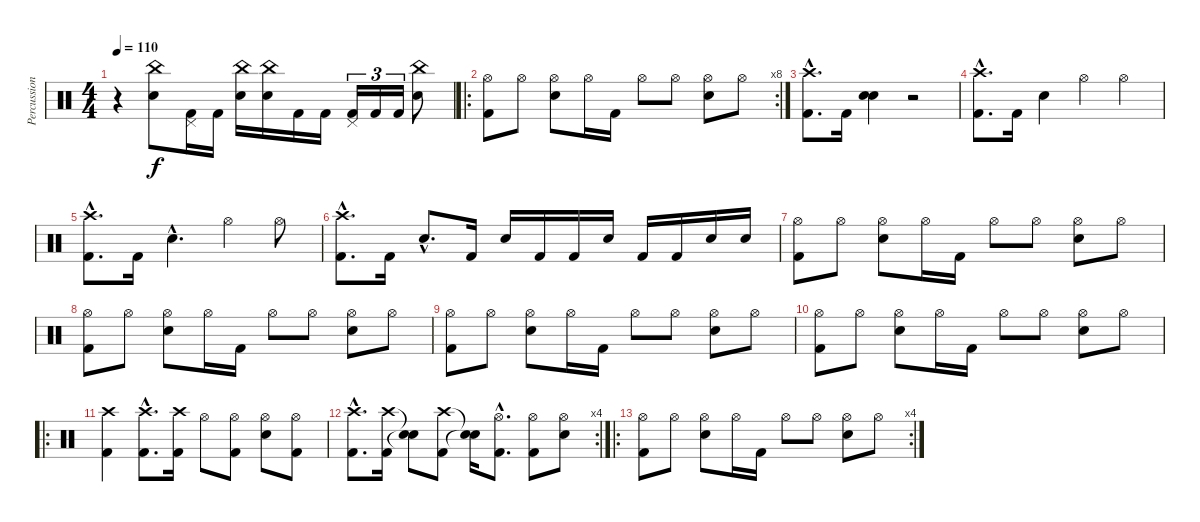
\track ("Percussions" "Percussion") {instrument percussion}
\staff {score}
\articulation defaults
\ts (4 4)
\tempo 110
\clef neutral
\ks c
r.4{dy f} ("China (hit)" "Snare (hit) 2").8 ("Pedal Hi-Hat (hit)" "Kick (hit) 2").16 "Kick (hit) 2".16 ("China (hit)" "Snare (hit) 2").16 ("China (hit)" "Snare (hit) 2").16 "Kick (hit) 2".16 "Kick (hit) 2".16 ("Pedal Hi-Hat (hit)" "Kick (hit) 2").16{tu (3 2)} "Kick (hit) 2".16{tu (3 2)} "Kick (hit) 2".16{tu (3 2)} ("China (hit)" "Snare (hit) 2").8 |
\ro
\rc 8
("Hi-Hat (open)" "Kick (hit) 2").8 "Hi-Hat (open)".8 ("Hi-Hat (open)" "Snare (hit) 2").8 "Hi-Hat (open)".16 "Kick (hit) 2".16 "Hi-Hat (open)".8 "Hi-Hat (open)".8 ("Hi-Hat (open)" "Snare (hit) 2").8 "Hi-Hat (open)".8 |
("Crash high (hit)"{hac} "Kick (hit) 2"{hac}).8{d} "Kick (hit) 2".16 ("Snare (hit) 2" "Snare (hit) 2").4 r.2 |
("Crash high (hit)"{hac} "Kick (hit) 2"{hac}).8{d} "Kick (hit) 2".16 "Snare (hit) 2".4 "Hi-Hat (open)".4 "Hi-Hat (open)".4 |
("Crash high (hit)"{hac} "Kick (hit) 2"{hac}).8{d} "Kick (hit) 2".16 "Snare (hit) 2"{hac}.4{d} "Hi-Hat (open)".4 "Hi-Hat (open)".8 |
("Crash high (hit)"{hac} "Kick (hit) 2"{hac}).8{d} "Kick (hit) 2".16 "Snare (hit) 2"{hac}.8{d} "Kick (hit) 2".16 "Snare (hit) 2".16 "Kick (hit) 2".16 "Kick (hit) 2".16 "Snare (hit) 2".16 "Kick (hit) 2".16 "Kick (hit) 2".16 "Snare (hit) 2".16 "Snare (hit) 2".16 |
("Hi-Hat (open)" "Kick (hit) 2").8 "Hi-Hat (open)".8 ("Hi-Hat (open)" "Snare (hit) 2").8 "Hi-Hat (open)".16 "Kick (hit) 2".16 "Hi-Hat (open)".8 "Hi-Hat (open)".8 ("Hi-Hat (open)" "Snare (hit) 2").8 "Hi-Hat (open)".8 |
("Hi-Hat (open)" "Kick (hit) 2").8 "Hi-Hat (open)".8 ("Hi-Hat (open)" "Snare (hit) 2").8 "Hi-Hat (open)".16 "Kick (hit) 2".16 "Hi-Hat (open)".8 "Hi-Hat (open)".8 ("Hi-Hat (open)" "Snare (hit) 2").8 "Hi-Hat (open)".8 |
("Hi-Hat (open)" "Kick (hit) 2").8 "Hi-Hat (open)".8 ("Hi-Hat (open)" "Snare (hit) 2").8 "Hi-Hat (open)".16 "Kick (hit) 2".16 "Hi-Hat (open)".8 "Hi-Hat (open)".8 ("Hi-Hat (open)" "Snare (hit) 2").8 "Hi-Hat (open)".8 |
("Hi-Hat (open)" "Kick (hit) 2").8 "Hi-Hat (open)".8 ("Hi-Hat (open)" "Snare (hit) 2").8 "Hi-Hat (open)".16 "Kick (hit) 2".16 "Hi-Hat (open)".8 "Hi-Hat (open)".8 ("Hi-Hat (open)" "Snare (hit) 2").8 "Hi-Hat (open)".8 |
\ro
("Crash high (hit)" "Kick (hit) 2").4 ("Crash high (hit)"{hac} "Kick (hit) 2"{hac}).8{d} ("Crash high (hit)" "Kick (hit) 2").16 "Hi-Hat (open)".8 ("Hi-Hat (open)" "Kick (hit) 2").8 ("Hi-Hat (open)" "Snare (hit) 2").8 ("Hi-Hat (open)" "Kick (hit) 2").8 |
\rc 4
("Crash high (hit)"{hac} "Kick (hit) 2"{hac}).8{d} ("Crash high (hit)" "Kick (hit) 2").16 ("Snare (hit)"{t} "Snare (hit)"{t}).8 ("Crash high (hit)" "Kick (hit) 2").8 ("Snare (hit)"{t} "Snare (hit)"{t}).16 ("Hi-Hat (open)"{hac} "Kick (hit) 2"{hac}).8{d} ("Hi-Hat (open)" "Kick (hit) 2").8 ("Hi-Hat (open)" "Snare (hit) 2").8 |
\ro
\rc 4
("Hi-Hat (open)" "Kick (hit) 2").8 "Hi-Hat (open)".8 ("Hi-Hat (open)" "Snare (hit) 2").8 "Hi-Hat (open)".16 "Kick (hit) 2".16 "Hi-Hat (open)".8 "Hi-Hat (open)".8 ("Hi-Hat (open)" "Snare (hit) 2").8 "Hi-Hat (open)".8
